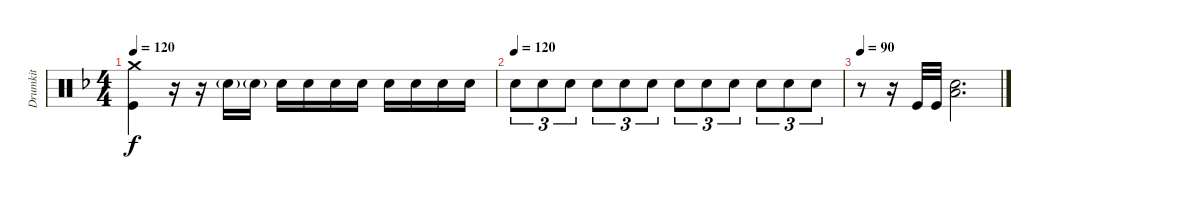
\track ("Drumkit" "Drumkit") {instrument percussion}
\staff {score}
\articulation defaults
\ts (4 4)
\tempo 120
\clef neutral
\ks dminor
("Kick (hit)" "Crash medium (hit)").4{dy f} r.16 r.16 "Snare (hit) 2"{g}.16 "Snare (hit) 2"{g}.16 "Snare (hit) 2".16 "Snare (hit) 2".16 "Snare (hit) 2".16 "Snare (hit) 2".16 "Snare (hit) 2".16 "Snare (hit) 2".16 "Snare (hit) 2".16 "Snare (hit) 2".16 |
\tempo (120)
"Snare (hit) 2".8{tu (3 2)} "Snare (hit) 2".8{tu (3 2)} "Snare (hit) 2".8{tu (3 2)} "Snare (hit) 2".8{tu (3 2)} "Snare (hit) 2".8{tu (3 2)} "Snare (hit) 2".8{tu (3 2)} "Snare (hit) 2".8{tu (3 2)} "Snare (hit) 2".8{tu (3 2)} "Snare (hit) 2".8{tu (3 2)} "Snare (hit) 2".8{tu (3 2)} "Snare (hit) 2".8{tu (3 2)} "Snare (hit) 2".8{tu (3 2)} |
\tempo 90
r.8 r.16 "Kick (hit)".32 "Kick (hit)".32 ("Snare (hit) 2" "Low Tom (hit)").2{d}
